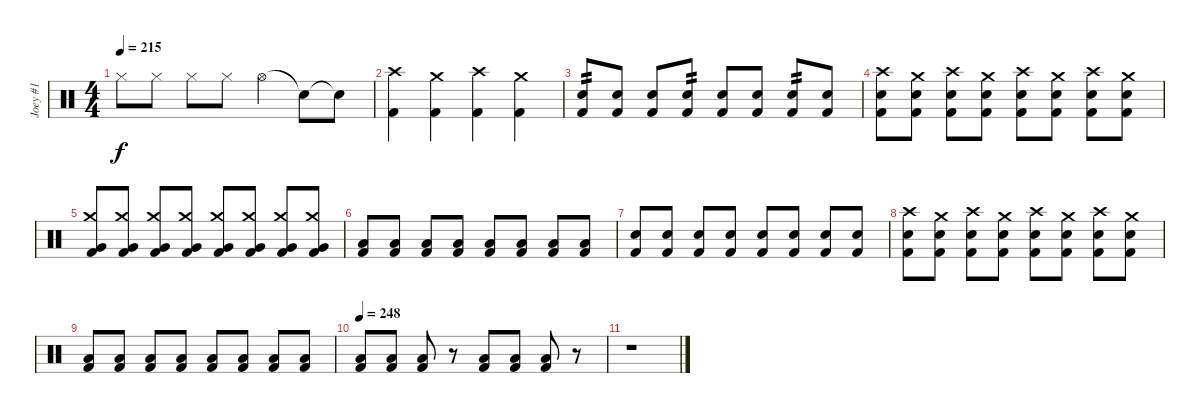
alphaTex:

\track ("Joey #1" "Joey #1") {instrument percussion}
\staff {score}
\articulation defaults
\ts (4 4)
\tempo 215
\clef neutral
\ks c "Hi-Hat (closed)".8{dy f} "Hi-Hat (closed)".8 "Hi-Hat (closed)".8 "Hi-Hat (closed)".8 "Hi-Hat (open)".4 "Snare (hit)"{t}.8 "Snare (hit)"{t}.8
|
("Crash high (hit)" "Kick (hit) 2").4 ("Crash medium (hit)" "Kick (hit) 2").4 ("Crash high (hit)" "Kick (hit) 2").4 ("Crash medium (hit)" "Kick (hit) 2").4 |
("Electric Snare (hit)" "Kick (hit) 2").8{tp 2} ("Electric Snare (hit)" "Kick (hit) 2").8 ("Electric Snare (hit)" "Kick (hit) 2").8 ("Electric Snare (hit)" "Kick (hit) 2").8{tp 2} ("Electric Snare (hit)" "Kick (hit) 2").8 ("Electric Snare (hit)" "Kick (hit) 2").8 ("Electric Snare (hit)" "Kick (hit) 2").8{tp 2} ("Electric Snare (hit)" "Kick (hit) 2").8 |
("Crash high (hit)" "Electric Snare (hit)" "Kick (hit) 2").8 ("Crash medium (hit)" "Electric Snare (hit)" "Kick (hit) 2").8 ("Crash high (hit)" "Electric Snare (hit)" "Kick (hit) 2").8 ("Crash medium (hit)" "Electric Snare (hit)" "Kick (hit) 2").8 ("Crash high (hit)" "Electric Snare (hit)" "Kick (hit) 2").8 ("Crash medium (hit)" "Electric Snare (hit)" "Kick (hit) 2").8 ("Crash high (hit)" "Electric Snare (hit)" "Kick (hit) 2").8 ("Crash medium (hit)" "Electric Snare (hit)" "Kick (hit) 2").8 |
("Crash medium (hit)" "Very Low Tom (hit)" "Kick (hit) 2").8 ("Crash medium (hit)" "Very Low Tom (hit)" "Kick (hit) 2").8 ("Crash medium (hit)" "Very Low Tom (hit)" "Kick (hit) 2").8 ("Crash medium (hit)" "Very Low Tom (hit)" "Kick (hit) 2").8 ("Crash medium (hit)" "Very Low Tom (hit)" "Kick (hit) 2").8 ("Crash medium (hit)" "Very Low Tom (hit)" "Kick (hit) 2").8 ("Crash medium (hit)" "Very Low Tom (hit)" "Kick (hit) 2").8 ("Crash medium (hit)" "Very Low Tom (hit)" "Kick (hit) 2").8 |
("Low Floor Tom (hit)" "Kick (hit) 2").8 ("Low Floor Tom (hit)" "Kick (hit) 2").8 ("Low Floor Tom (hit)" "Kick (hit) 2").8 ("Low Floor Tom (hit)" "Kick (hit) 2").8 ("Low Floor Tom (hit)" "Kick (hit) 2").8 ("Low Floor Tom (hit)" "Kick (hit) 2").8 ("Low Floor Tom (hit)" "Kick (hit) 2").8 ("Low Floor Tom (hit)" "Kick (hit) 2").8 |
("Kick (hit) 2" "Electric Snare (hit)").8 ("Electric Snare (hit)" "Kick (hit) 2").8 ("Kick (hit) 2" "Electric Snare (hit)").8 ("Electric Snare (hit)" "Kick (hit) 2").8 ("Kick (hit) 2" "Electric Snare (hit)").8 ("Electric Snare (hit)" "Kick (hit) 2").8 ("Kick (hit) 2" "Electric Snare (hit)").8 ("Electric Snare (hit)" "Kick (hit) 2").8 |
("Crash high (hit)" "Electric Snare (hit)" "Kick (hit) 2").8 ("Crash medium (hit)" "Electric Snare (hit)" "Kick (hit) 2").8 ("Crash high (hit)" "Electric Snare (hit)" "Kick (hit) 2").8 ("Crash medium (hit)" "Electric Snare (hit)" "Kick (hit) 2").8 ("Crash high (hit)" "Electric Snare (hit)" "Kick (hit) 2").8 ("Crash medium (hit)" "Electric Snare (hit)" "Kick (hit) 2").8 ("Crash high (hit)" "Electric Snare (hit)" "Kick (hit) 2").8 ("Crash medium (hit)" "Electric Snare (hit)" "Kick (hit) 2").8 |
("Low Floor Tom (hit)" "Kick (hit) 2").8 ("Low Floor Tom (hit)" "Kick (hit) 2").8 ("Low Floor Tom (hit)" "Kick (hit) 2").8 ("Low Floor Tom (hit)" "Kick (hit) 2").8 ("Low Floor Tom (hit)" "Kick (hit) 2").8 ("Low Floor Tom (hit)" "Kick (hit) 2").8 ("Low Floor Tom (hit)" "Kick (hit) 2").8 ("Low Floor Tom (hit)" "Kick (hit) 2").8 |
\tempo 248
("Low Floor Tom (hit)" "Kick (hit) 2").8 ("Low Floor Tom (hit)" "Kick (hit) 2").8 ("Low Floor Tom (hit)" "Kick (hit) 2").8 r.8 ("Low Floor Tom (hit)" "Kick (hit) 2").8 ("Low Floor Tom (hit)" "Kick (hit) 2").8 ("Low Floor Tom (hit)" "Kick (hit) 2").8 r.8 |
r.1
